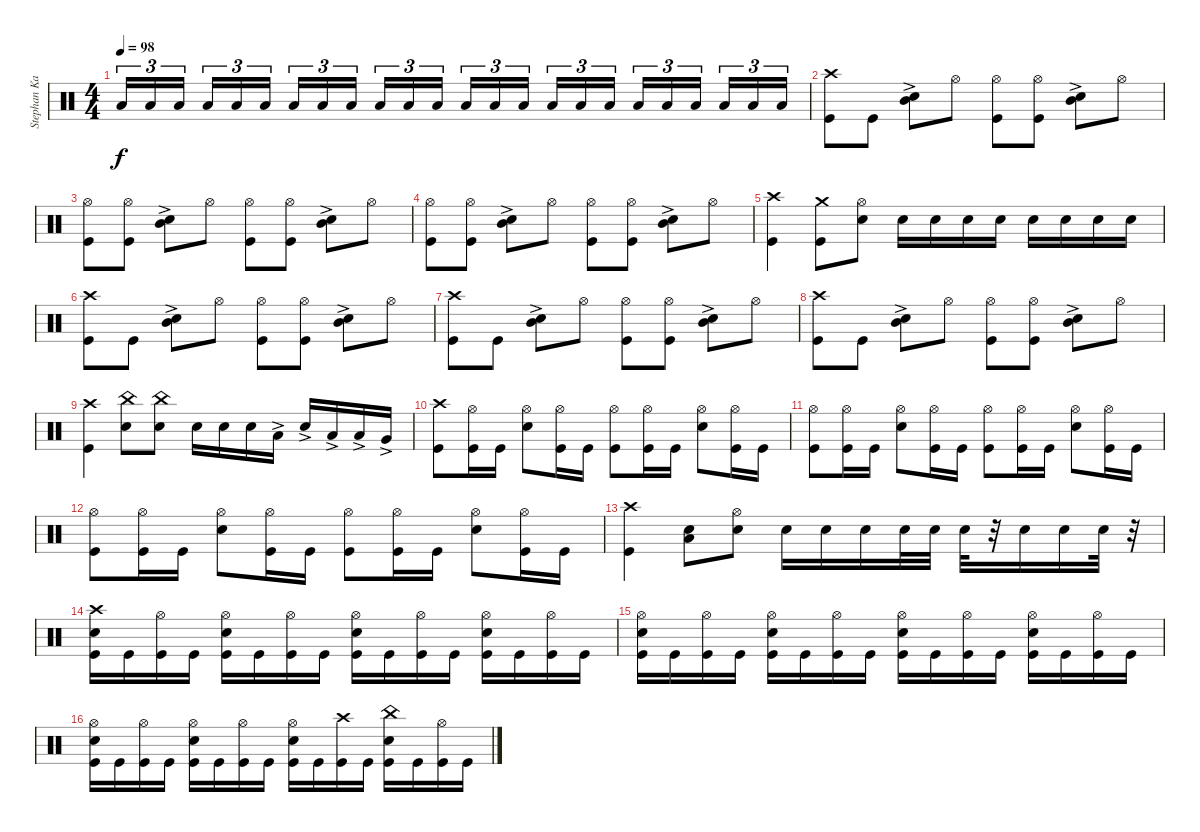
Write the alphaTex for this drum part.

\track ("Stephan Kaufmann" "Stephan Ka") {instrument percussion}
\staff {score}
\articulation defaults
\ts (4 4)
\tempo 98
\clef neutral
\ks c "Low Floor Tom (hit)".16{tu (3 2) dy f} "Low Floor Tom (hit)".16{tu (3 2)} "Low Floor Tom (hit)".16{tu (3 2)} "Low Floor Tom (hit)".16{tu (3 2)} "Low Floor Tom (hit)".16{tu (3 2)} "Low Floor Tom (hit)".16{tu (3 2)} "Low Floor Tom (hit)".16{tu (3 2)} "Low Floor Tom (hit)".16{tu (3 2)} "Low Floor Tom (hit)".16{tu (3 2)} "Low Floor Tom (hit)".16{tu (3 2)} "Low Floor Tom (hit)".16{tu (3 2)} "Low Floor Tom (hit)".16{tu (3 2)} "Low Floor Tom (hit)".16{tu (3 2)} "Low Floor Tom (hit)".16{tu (3 2)} "Low Floor Tom (hit)".16{tu (3 2)} "Low Floor Tom (hit)".16{tu (3 2)} "Low Floor Tom (hit)".16{tu (3 2)} "Low Floor Tom (hit)".16{tu (3 2)} "Low Floor Tom (hit)".16{tu (3 2)} "Low Floor Tom (hit)".16{tu (3 2)} "Low Floor Tom (hit)".16{tu (3 2)} "Low Floor Tom (hit)".16{tu (3 2)} "Low Floor Tom (hit)".16{tu (3 2)} "Low Floor Tom (hit)".16{tu (3 2)}
|
("Crash high (hit)" "Kick (hit)").8 "Kick (hit)".8 ("Snare (hit) 2"{ac} "Mid Tom (hit)").8 "Hi-Hat (open)".8 ("Hi-Hat (open)" "Kick (hit)").8 ("Hi-Hat (open)" "Kick (hit)").8 ("Snare (hit) 2"{ac} "Mid Tom (hit)").8 "Hi-Hat (open)".8 |
("Hi-Hat (open)" "Kick (hit)").8 ("Hi-Hat (open)" "Kick (hit)").8 ("Snare (hit) 2"{ac} "Mid Tom (hit)").8 "Hi-Hat (open)".8 ("Hi-Hat (open)" "Kick (hit)").8 ("Hi-Hat (open)" "Kick (hit)").8 ("Snare (hit) 2"{ac} "Mid Tom (hit)").8 "Hi-Hat (open)".8 |
("Hi-Hat (open)" "Kick (hit)").8 ("Hi-Hat (open)" "Kick (hit)").8 ("Snare (hit) 2"{ac} "Mid Tom (hit)").8 "Hi-Hat (open)".8 ("Hi-Hat (open)" "Kick (hit)").8 ("Hi-Hat (open)" "Kick (hit)").8 ("Snare (hit) 2"{ac} "Mid Tom (hit)").8 "Hi-Hat (open)".8 |
("Kick (hit)" "Crash high (hit)").4 ("Kick (hit)" "Crash medium (hit)").8 ("Snare (hit) 2" "Hi-Hat (open)").8 "Snare (hit) 2".16 "Snare (hit) 2".16 "Snare (hit) 2".16 "Snare (hit) 2".16 "Snare (hit) 2".16 "Snare (hit) 2".16 "Snare (hit) 2".16 "Snare (hit) 2".16 |
("Crash high (hit)" "Kick (hit)").8 "Kick (hit)".8 ("Snare (hit) 2"{ac} "Mid Tom (hit)").8 "Hi-Hat (open)".8 ("Hi-Hat (open)" "Kick (hit)").8 ("Hi-Hat (open)" "Kick (hit)").8 ("Snare (hit) 2"{ac} "Mid Tom (hit)").8 "Hi-Hat (open)".8 |
("Crash high (hit)" "Kick (hit)").8 "Kick (hit)".8 ("Snare (hit) 2"{ac} "Mid Tom (hit)").8 "Hi-Hat (open)".8 ("Hi-Hat (open)" "Kick (hit)").8 ("Hi-Hat (open)" "Kick (hit)").8 ("Snare (hit) 2"{ac} "Mid Tom (hit)").8 "Hi-Hat (open)".8 |
("Crash high (hit)" "Kick (hit)").8 "Kick (hit)".8 ("Snare (hit) 2"{ac} "Mid Tom (hit)").8 "Hi-Hat (open)".8 ("Hi-Hat (open)" "Kick (hit)").8 ("Hi-Hat (open)" "Kick (hit)").8 ("Snare (hit) 2"{ac} "Mid Tom (hit)").8 "Hi-Hat (open)".8 |
("Kick (hit)" "Crash high (hit)").4 ("Snare (hit) 2" "China (hit)").8 ("Snare (hit) 2" "China (hit)").8 "Snare (hit) 2".16 "Snare (hit) 2".16 "Snare (hit) 2".16 "Low Tom (hit)"{ac}.16 "Snare (hit) 2"{ac}.16 "Low Tom (hit)"{ac}.16 "Low Tom (hit)"{ac}.16 "Very Low Tom (hit)"{ac}.16 |
("Crash high (hit)" "Kick (hit)").8 ("Hi-Hat (open)" "Kick (hit)").16 "Kick (hit)".16 ("Hi-Hat (open)" "Snare (hit) 2").8 ("Hi-Hat (open)" "Kick (hit)").16 "Kick (hit)".16 ("Hi-Hat (open)" "Kick (hit)").8 ("Hi-Hat (open)" "Kick (hit)").16 "Kick (hit)".16 ("Hi-Hat (open)" "Snare (hit) 2").8 ("Hi-Hat (open)" "Kick (hit)").16 "Kick (hit)".16 |
("Hi-Hat (open)" "Kick (hit)").8 ("Hi-Hat (open)" "Kick (hit)").16 "Kick (hit)".16 ("Hi-Hat (open)" "Snare (hit) 2").8 ("Hi-Hat (open)" "Kick (hit)").16 "Kick (hit)".16 ("Hi-Hat (open)" "Kick (hit)").8 ("Hi-Hat (open)" "Kick (hit)").16 "Kick (hit)".16 ("Hi-Hat (open)" "Snare (hit) 2").8 ("Hi-Hat (open)" "Kick (hit)").16 "Kick (hit)".16 |
("Hi-Hat (open)" "Kick (hit)").8 ("Hi-Hat (open)" "Kick (hit)").16 "Kick (hit)".16 ("Hi-Hat (open)" "Snare (hit) 2").8 ("Hi-Hat (open)" "Kick (hit)").16 "Kick (hit)".16 ("Hi-Hat (open)" "Kick (hit)").8 ("Hi-Hat (open)" "Kick (hit)").16 "Kick (hit)".16 ("Hi-Hat (open)" "Snare (hit) 2").8 ("Hi-Hat (open)" "Kick (hit)").16 "Kick (hit)".16 |
("Kick (hit)" "Crash high (hit)").4 ("Snare (hit) 2" "Low Floor Tom (hit)").8 ("Hi-Hat (open)" "Snare (hit) 2").8 "Snare (hit) 2".16 "Snare (hit) 2".16 "Snare (hit) 2".16 "Snare (hit) 2".32 "Snare (hit) 2".32 "Snare (hit) 2".32 r.32 "Snare (hit) 2".16 "Snare (hit) 2".16 "Snare (hit) 2".32 r.32 |
("Crash high (hit)" "Snare (hit) 2" "Kick (hit)").16 "Kick (hit)".16 ("Hi-Hat (open)" "Kick (hit)").16 "Kick (hit)".16 ("Hi-Hat (open)" "Snare (hit) 2" "Kick (hit)").16 "Kick (hit)".16 ("Hi-Hat (open)" "Kick (hit)").16 "Kick (hit)".16 ("Hi-Hat (open)" "Snare (hit) 2" "Kick (hit)").16 "Kick (hit)".16 ("Hi-Hat (open)" "Kick (hit)").16 "Kick (hit)".16 ("Hi-Hat (open)" "Snare (hit) 2" "Kick (hit)").16 "Kick (hit)".16 ("Hi-Hat (open)" "Kick (hit)").16 "Kick (hit)".16 |
("Hi-Hat (open)" "Snare (hit) 2" "Kick (hit)").16 "Kick (hit)".16 ("Hi-Hat (open)" "Kick (hit)").16 "Kick (hit)".16 ("Hi-Hat (open)" "Snare (hit) 2" "Kick (hit)").16 "Kick (hit)".16 ("Hi-Hat (open)" "Kick (hit)").16 "Kick (hit)".16 ("Hi-Hat (open)" "Snare (hit) 2" "Kick (hit)").16 "Kick (hit)".16 ("Hi-Hat (open)" "Kick (hit)").16 "Kick (hit)".16 ("Hi-Hat (open)" "Snare (hit) 2" "Kick (hit)").16 "Kick (hit)".16 ("Hi-Hat (open)" "Kick (hit)").16 "Kick (hit)".16 |
("Hi-Hat (open)" "Snare (hit) 2" "Kick (hit)").16 "Kick (hit)".16 ("Hi-Hat (open)" "Kick (hit)").16 "Kick (hit)".16 ("Hi-Hat (open)" "Snare (hit) 2" "Kick (hit)").16 "Kick (hit)".16 ("Hi-Hat (open)" "Kick (hit)").16 "Kick (hit)".16 ("Hi-Hat (open)" "Snare (hit) 2" "Kick (hit)").16 "Kick (hit)".16 ("Kick (hit)" "Crash high (hit)").16 "Kick (hit)".16 ("Snare (hit) 2" "Kick (hit)" "China (hit)").16 "Kick (hit)".16 ("Hi-Hat (open)" "Kick (hit)").16 "Kick (hit)".16
